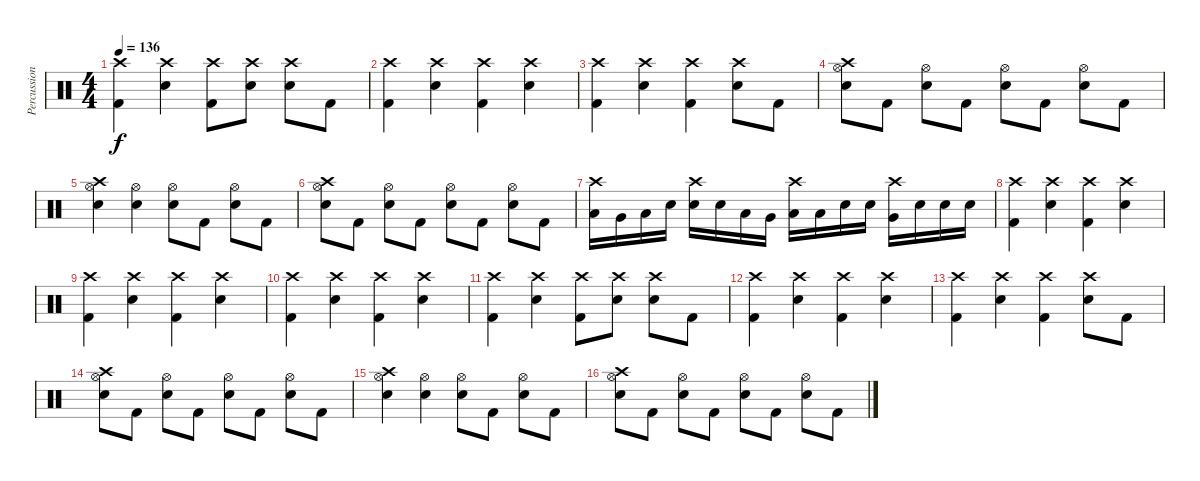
\track ("Percussion" "Percussion") {instrument percussion}
\staff {score}
\articulation defaults
\ts (4 4)
\tempo 136
\clef neutral
\ks c
("Kick (hit) 2" "Crash high (hit)").4{dy f} ("Snare (hit) 2" "Crash high (hit)").4 ("Kick (hit) 2" "Crash high (hit)").8 ("Snare (hit) 2" "Crash high (hit)").8 ("Snare (hit) 2" "Crash high (hit)").8 "Kick (hit) 2".8 |
("Kick (hit) 2" "Crash high (hit)").4 ("Snare (hit) 2" "Crash high (hit)").4 ("Kick (hit) 2" "Crash high (hit)").4 ("Snare (hit) 2" "Crash high (hit)").4 |
("Kick (hit) 2" "Crash high (hit)").4 ("Snare (hit) 2" "Crash high (hit)").4 ("Kick (hit) 2" "Crash high (hit)").4 ("Snare (hit) 2" "Crash high (hit)").8 "Kick (hit) 2".8 |
("Snare (hit) 2" "Hi-Hat (open)" "Crash high (hit)").8 "Kick (hit) 2".8 ("Snare (hit) 2" "Hi-Hat (open)").8 "Kick (hit) 2".8 ("Snare (hit) 2" "Hi-Hat (open)").8 "Kick (hit) 2".8 ("Snare (hit) 2" "Hi-Hat (open)").8 "Kick (hit) 2".8 |
("Snare (hit) 2" "Hi-Hat (open)" "Crash high (hit)").4 ("Snare (hit) 2" "Hi-Hat (open)").4 ("Snare (hit) 2" "Hi-Hat (open)").8 "Kick (hit) 2".8 ("Snare (hit) 2" "Hi-Hat (open)").8 "Kick (hit) 2".8 |
("Snare (hit) 2" "Hi-Hat (open)" "Crash high (hit)").8 "Kick (hit) 2".8 ("Snare (hit) 2" "Hi-Hat (open)").8 "Kick (hit) 2".8 ("Snare (hit) 2" "Hi-Hat (open)").8 "Kick (hit) 2".8 ("Snare (hit) 2" "Hi-Hat (open)").8 "Kick (hit) 2".8 |
("Low Tom (hit)" "Crash high (hit)").16 "Very Low Tom (hit)".16 "Low Floor Tom (hit)".16 "Snare (hit) 2".16 ("Snare (hit) 2" "Crash high (hit)").16 "Snare (hit) 2".16 "Low Tom (hit)".16 "Very Low Tom (hit)".16 ("Low Floor Tom (hit)" "Crash high (hit)").16 "Low Floor Tom (hit)".16 "Snare (hit) 2".16 "Snare (hit) 2".16 ("Very Low Tom (hit)" "Crash high (hit)").16 "Snare (hit) 2".16 "Snare (hit) 2".16 "Snare (hit) 2".16 |
("Kick (hit) 2" "Crash high (hit)").4 ("Snare (hit) 2" "Crash high (hit)").4 ("Kick (hit) 2" "Crash high (hit)").4 ("Snare (hit) 2" "Crash high (hit)").4 |
("Kick (hit) 2" "Crash high (hit)").4 ("Snare (hit) 2" "Crash high (hit)").4 ("Kick (hit) 2" "Crash high (hit)").4 ("Snare (hit) 2" "Crash high (hit)").4 |
("Kick (hit) 2" "Crash high (hit)").4 ("Snare (hit) 2" "Crash high (hit)").4 ("Kick (hit) 2" "Crash high (hit)").4 ("Snare (hit) 2" "Crash high (hit)").4 |
("Kick (hit) 2" "Crash high (hit)").4 ("Snare (hit) 2" "Crash high (hit)").4 ("Kick (hit) 2" "Crash high (hit)").8 ("Snare (hit) 2" "Crash high (hit)").8 ("Snare (hit) 2" "Crash high (hit)").8 "Kick (hit) 2".8 |
("Kick (hit) 2" "Crash high (hit)").4 ("Snare (hit) 2" "Crash high (hit)").4 ("Kick (hit) 2" "Crash high (hit)").4 ("Snare (hit) 2" "Crash high (hit)").4 |
("Kick (hit) 2" "Crash high (hit)").4 ("Snare (hit) 2" "Crash high (hit)").4 ("Kick (hit) 2" "Crash high (hit)").4 ("Snare (hit) 2" "Crash high (hit)").8 "Kick (hit) 2".8 |
("Snare (hit) 2" "Hi-Hat (open)" "Crash high (hit)").8 "Kick (hit) 2".8 ("Snare (hit) 2" "Hi-Hat (open)").8 "Kick (hit) 2".8 ("Snare (hit) 2" "Hi-Hat (open)").8 "Kick (hit) 2".8 ("Snare (hit) 2" "Hi-Hat (open)").8 "Kick (hit) 2".8 |
("Snare (hit) 2" "Hi-Hat (open)" "Crash high (hit)").4 ("Snare (hit) 2" "Hi-Hat (open)").4 ("Snare (hit) 2" "Hi-Hat (open)").8 "Kick (hit) 2".8 ("Snare (hit) 2" "Hi-Hat (open)").8 "Kick (hit) 2".8 |
("Snare (hit) 2" "Hi-Hat (open)" "Crash high (hit)").8 "Kick (hit) 2".8 ("Snare (hit) 2" "Hi-Hat (open)").8 "Kick (hit) 2".8 ("Snare (hit) 2" "Hi-Hat (open)").8 "Kick (hit) 2".8 ("Snare (hit) 2" "Hi-Hat (open)").8 "Kick (hit) 2".8
